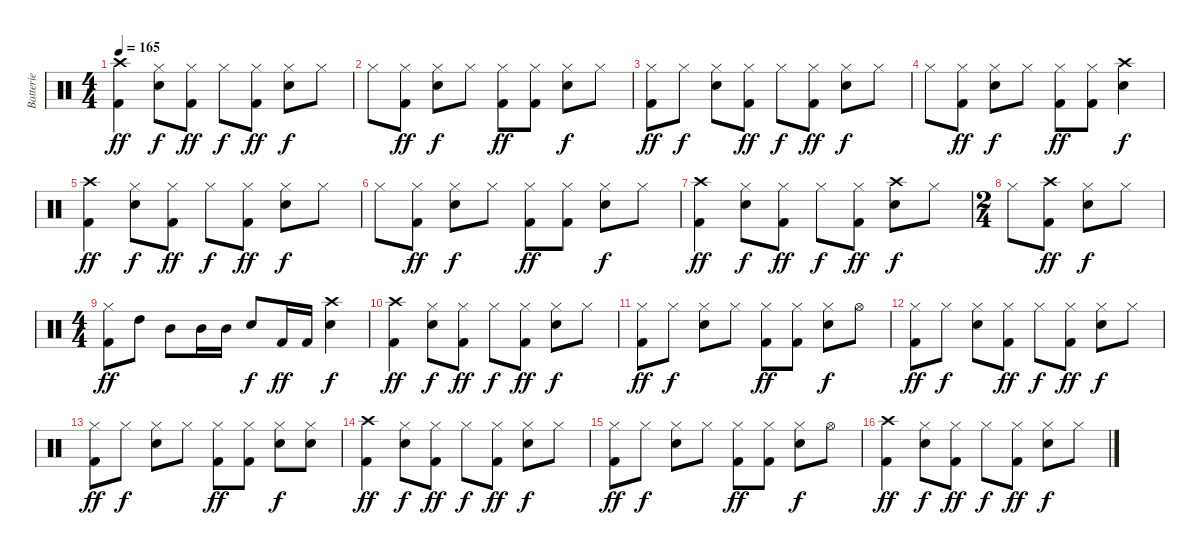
\track ("Batterie" "Batterie") {instrument percussion}
\staff {score}
\articulation defaults
\ts (4 4)
\tempo 165
\clef neutral
\ks c
("Crash high (hit)" "Kick (hit) 2").4{dy ff} ("Hi-Hat (closed)" "Snare (hit) 2").8{dy f} ("Hi-Hat (closed)" "Kick (hit) 2").8{dy ff} "Hi-Hat (closed)".8{dy f} ("Hi-Hat (closed)" "Kick (hit) 2").8{dy ff} ("Hi-Hat (closed)" "Snare (hit) 2").8{dy f} "Hi-Hat (closed)".8 |
"Hi-Hat (closed)".8 ("Hi-Hat (closed)" "Kick (hit) 2").8{dy ff} ("Hi-Hat (closed)" "Snare (hit) 2").8{dy f} "Hi-Hat (closed)".8 ("Hi-Hat (closed)" "Kick (hit) 2").8{dy ff} ("Hi-Hat (closed)" "Kick (hit) 2").8 ("Hi-Hat (closed)" "Snare (hit) 2").8{dy f} "Hi-Hat (closed)".8 |
("Hi-Hat (closed)" "Kick (hit) 2").8{dy ff} "Hi-Hat (closed)".8{dy f} ("Hi-Hat (closed)" "Snare (hit) 2").8 ("Hi-Hat (closed)" "Kick (hit) 2").8{dy ff} "Hi-Hat (closed)".8{dy f} ("Hi-Hat (closed)" "Kick (hit) 2").8{dy ff} ("Hi-Hat (closed)" "Snare (hit) 2").8{dy f} "Hi-Hat (closed)".8 |
"Hi-Hat (closed)".8 ("Hi-Hat (closed)" "Kick (hit) 2").8{dy ff} ("Hi-Hat (closed)" "Snare (hit) 2").8{dy f} "Hi-Hat (closed)".8 ("Hi-Hat (closed)" "Kick (hit) 2").8{dy ff} ("Hi-Hat (closed)" "Kick (hit) 2").8 ("Crash high (hit)" "Snare (hit) 2").4{dy f} |
("Crash high (hit)" "Kick (hit) 2").4{dy ff} ("Hi-Hat (closed)" "Snare (hit) 2").8{dy f} ("Hi-Hat (closed)" "Kick (hit) 2").8{dy ff} "Hi-Hat (closed)".8{dy f} ("Hi-Hat (closed)" "Kick (hit) 2").8{dy ff} ("Hi-Hat (closed)" "Snare (hit) 2").8{dy f} "Hi-Hat (closed)".8 |
"Hi-Hat (closed)".8 ("Hi-Hat (closed)" "Kick (hit) 2").8{dy ff} ("Hi-Hat (closed)" "Snare (hit) 2").8{dy f} "Hi-Hat (closed)".8 ("Hi-Hat (closed)" "Kick (hit) 2").8{dy ff} ("Hi-Hat (closed)" "Kick (hit) 2").8 ("Hi-Hat (closed)" "Snare (hit) 2").8{dy f} "Hi-Hat (closed)".8 |
("Crash high (hit)" "Kick (hit) 2").4{dy ff} ("Hi-Hat (closed)" "Snare (hit) 2").8{dy f} ("Hi-Hat (closed)" "Kick (hit) 2").8{dy ff} "Hi-Hat (closed)".8{dy f} ("Hi-Hat (closed)" "Kick (hit) 2").8{dy ff} ("Crash high (hit)" "Snare (hit) 2").8{dy f} "Hi-Hat (closed)".8 |
\ts (2 4)
"Hi-Hat (closed)".8 ("Crash high (hit)" "Kick (hit) 2").8{dy ff} ("Hi-Hat (closed)" "Snare (hit) 2").8{dy f} "Hi-Hat (closed)".8 |
\ts (4 4)
("Hi-Hat (closed)" "Kick (hit) 2").8{dy ff} "High Tom (hit)".8 "Mid Tom (hit)".8 "Mid Tom (hit)".16 "Mid Tom (hit)".16 "Snare (hit) 2".8{dy f} "Kick (hit) 2".16{dy ff} "Kick (hit) 2".16 ("Crash high (hit)" "Snare (hit) 2").4{dy f} |
("Crash high (hit)" "Kick (hit) 2").4{dy ff} ("Hi-Hat (closed)" "Snare (hit) 2").8{dy f} ("Hi-Hat (closed)" "Kick (hit) 2").8{dy ff} "Hi-Hat (closed)".8{dy f} ("Hi-Hat (closed)" "Kick (hit) 2").8{dy ff} ("Hi-Hat (closed)" "Snare (hit) 2").8{dy f} "Hi-Hat (closed)".8 |
("Hi-Hat (closed)" "Kick (hit) 2").8{dy ff} "Hi-Hat (closed)".8{dy f} ("Hi-Hat (closed)" "Snare (hit) 2").8 "Hi-Hat (closed)".8 ("Hi-Hat (closed)" "Kick (hit) 2").8{dy ff} ("Hi-Hat (closed)" "Kick (hit) 2").8 ("Hi-Hat (closed)" "Snare (hit) 2").8{dy f} "Hi-Hat (open)".8 |
("Hi-Hat (closed)" "Kick (hit) 2").8{dy ff} "Hi-Hat (closed)".8{dy f} ("Hi-Hat (closed)" "Snare (hit) 2").8 ("Hi-Hat (closed)" "Kick (hit) 2").8{dy ff} "Hi-Hat (closed)".8{dy f} ("Hi-Hat (closed)" "Kick (hit) 2").8{dy ff} ("Hi-Hat (closed)" "Snare (hit) 2").8{dy f} "Hi-Hat (closed)".8 |
("Hi-Hat (closed)" "Kick (hit) 2").8{dy ff} "Hi-Hat (closed)".8{dy f} ("Hi-Hat (closed)" "Snare (hit) 2").8 "Hi-Hat (closed)".8 ("Hi-Hat (closed)" "Kick (hit) 2").8{dy ff} ("Hi-Hat (closed)" "Kick (hit) 2").8 ("Hi-Hat (closed)" "Snare (hit) 2").8{dy f} ("Hi-Hat (closed)" "Snare (hit) 2").8 |
("Crash high (hit)" "Kick (hit) 2").4{dy ff} ("Hi-Hat (closed)" "Snare (hit) 2").8{dy f} ("Hi-Hat (closed)" "Kick (hit) 2").8{dy ff} "Hi-Hat (closed)".8{dy f} ("Hi-Hat (closed)" "Kick (hit) 2").8{dy ff} ("Hi-Hat (closed)" "Snare (hit) 2").8{dy f} "Hi-Hat (closed)".8 |
("Hi-Hat (closed)" "Kick (hit) 2").8{dy ff} "Hi-Hat (closed)".8{dy f} ("Hi-Hat (closed)" "Snare (hit) 2").8 "Hi-Hat (closed)".8 ("Hi-Hat (closed)" "Kick (hit) 2").8{dy ff} ("Hi-Hat (closed)" "Kick (hit) 2").8 ("Hi-Hat (closed)" "Snare (hit) 2").8{dy f} "Hi-Hat (open)".8 |
("Crash high (hit)" "Kick (hit) 2").4{dy ff} ("Hi-Hat (closed)" "Snare (hit) 2").8{dy f} ("Hi-Hat (closed)" "Kick (hit) 2").8{dy ff} "Hi-Hat (closed)".8{dy f} ("Hi-Hat (closed)" "Kick (hit) 2").8{dy ff} ("Hi-Hat (closed)" "Snare (hit) 2").8{dy f} "Hi-Hat (closed)".8
